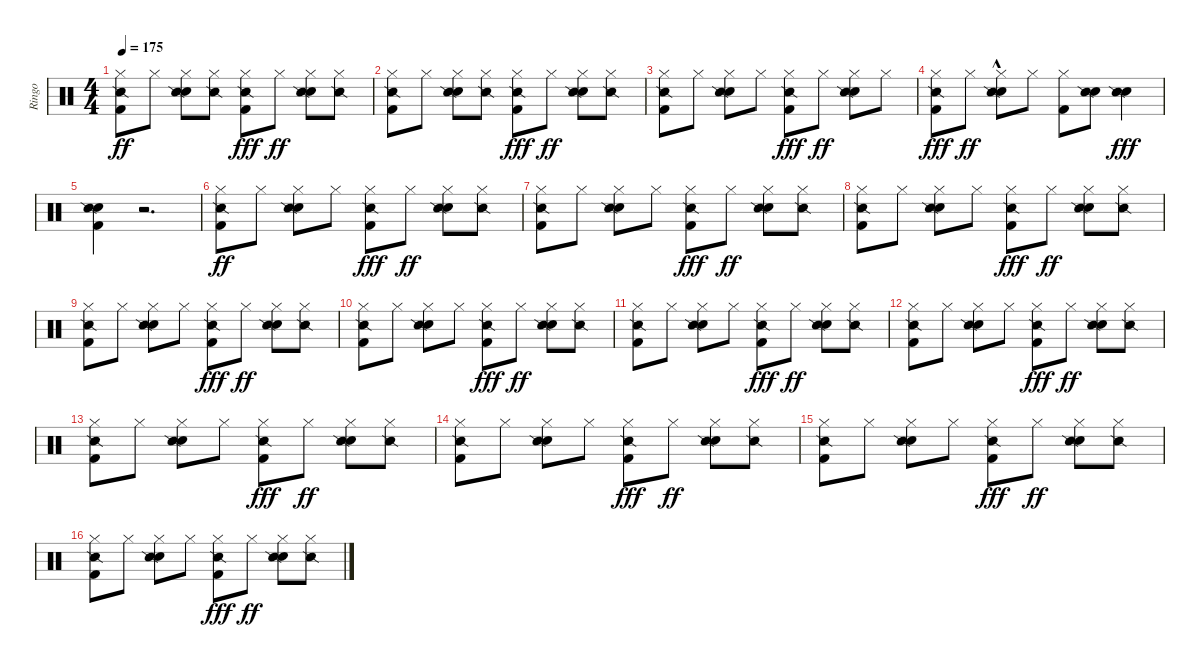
\track ("Ringo" "Ringo") {instrument percussion}
\staff {score}
\articulation defaults
\ts (4 4)
\tempo 175
\clef neutral
\ks c
("Hi-Hat (closed)" "Snare (side stick) 2" "Kick (hit) 2").8{dy ff} "Hi-Hat (closed)".8 ("Hi-Hat (closed)" "Electric Snare (hit)" "Snare (side stick) 2").8 ("Hi-Hat (closed)" "Snare (side stick) 2").8 ("Hi-Hat (closed)" "Snare (side stick) 2" "Kick (hit) 2").8{dy fff} "Hi-Hat (closed)".8{dy ff} ("Hi-Hat (closed)" "Electric Snare (hit)" "Snare (side stick) 2").8 ("Hi-Hat (closed)" "Snare (side stick) 2").8 |
("Hi-Hat (closed)" "Snare (side stick) 2" "Kick (hit) 2").8 "Hi-Hat (closed)".8 ("Hi-Hat (closed)" "Electric Snare (hit)" "Snare (side stick) 2").8 ("Hi-Hat (closed)" "Snare (side stick) 2").8 ("Hi-Hat (closed)" "Snare (side stick) 2" "Kick (hit) 2").8{dy fff} "Hi-Hat (closed)".8{dy ff} ("Hi-Hat (closed)" "Electric Snare (hit)" "Snare (side stick) 2").8 ("Hi-Hat (closed)" "Snare (side stick) 2").8 |
("Hi-Hat (closed)" "Snare (side stick) 2" "Kick (hit) 2").8 "Hi-Hat (closed)".8 ("Hi-Hat (closed)" "Electric Snare (hit)" "Snare (side stick) 2").8 "Hi-Hat (closed)".8 ("Hi-Hat (closed)" "Snare (side stick) 2" "Kick (hit) 2").8{dy fff} "Hi-Hat (closed)".8{dy ff} ("Hi-Hat (closed)" "Electric Snare (hit)" "Snare (side stick) 2").8 "Hi-Hat (closed)".8 |
("Hi-Hat (closed)" "Snare (side stick) 2" "Kick (hit) 2").8{dy fff} "Hi-Hat (closed)".8{dy ff} ("Hi-Hat (closed)" "Electric Snare (hit)"{hac} "Snare (side stick) 2").8 "Hi-Hat (closed)".8 ("Hi-Hat (closed)" "Kick (hit) 2").8 ("Electric Snare (hit)" "Snare (side stick) 2").8 ("Electric Snare (hit)" "Snare (side stick) 2").4{dy fff} |
("Electric Snare (hit)" "Snare (side stick) 2" "Kick (hit) 2").4 r.2{d} |
("Hi-Hat (closed)" "Snare (side stick) 2" "Kick (hit) 2").8{dy ff} "Hi-Hat (closed)".8 ("Hi-Hat (closed)" "Electric Snare (hit)" "Snare (side stick) 2").8 "Hi-Hat (closed)".8 ("Hi-Hat (closed)" "Snare (side stick) 2" "Kick (hit) 2").8{dy fff} "Hi-Hat (closed)".8{dy ff} ("Hi-Hat (closed)" "Electric Snare (hit)" "Snare (side stick) 2").8 ("Hi-Hat (closed)" "Snare (side stick) 2").8 |
("Hi-Hat (closed)" "Snare (side stick) 2" "Kick (hit) 2").8 "Hi-Hat (closed)".8 ("Hi-Hat (closed)" "Electric Snare (hit)" "Snare (side stick) 2").8 "Hi-Hat (closed)".8 ("Hi-Hat (closed)" "Snare (side stick) 2" "Kick (hit) 2").8{dy fff} "Hi-Hat (closed)".8{dy ff} ("Hi-Hat (closed)" "Electric Snare (hit)" "Snare (side stick) 2").8 ("Hi-Hat (closed)" "Snare (side stick) 2").8 |
("Hi-Hat (closed)" "Snare (side stick) 2" "Kick (hit) 2").8 "Hi-Hat (closed)".8 ("Hi-Hat (closed)" "Electric Snare (hit)" "Snare (side stick) 2").8 "Hi-Hat (closed)".8 ("Hi-Hat (closed)" "Snare (side stick) 2" "Kick (hit) 2").8{dy fff} "Hi-Hat (closed)".8{dy ff} ("Hi-Hat (closed)" "Electric Snare (hit)" "Snare (side stick) 2").8 ("Hi-Hat (closed)" "Snare (side stick) 2").8 |
("Hi-Hat (closed)" "Snare (side stick) 2" "Kick (hit) 2").8 "Hi-Hat (closed)".8 ("Hi-Hat (closed)" "Electric Snare (hit)" "Snare (side stick) 2").8 "Hi-Hat (closed)".8 ("Hi-Hat (closed)" "Snare (side stick) 2" "Kick (hit) 2").8{dy fff} "Hi-Hat (closed)".8{dy ff} ("Hi-Hat (closed)" "Electric Snare (hit)" "Snare (side stick) 2").8 ("Hi-Hat (closed)" "Snare (side stick) 2").8 |
("Hi-Hat (closed)" "Snare (side stick) 2" "Kick (hit) 2").8 "Hi-Hat (closed)".8 ("Hi-Hat (closed)" "Electric Snare (hit)" "Snare (side stick) 2").8 "Hi-Hat (closed)".8 ("Hi-Hat (closed)" "Snare (side stick) 2" "Kick (hit) 2").8{dy fff} "Hi-Hat (closed)".8{dy ff} ("Hi-Hat (closed)" "Electric Snare (hit)" "Snare (side stick) 2").8 ("Hi-Hat (closed)" "Snare (side stick) 2").8 |
("Hi-Hat (closed)" "Snare (side stick) 2" "Kick (hit) 2").8 "Hi-Hat (closed)".8 ("Hi-Hat (closed)" "Electric Snare (hit)" "Snare (side stick) 2").8 "Hi-Hat (closed)".8 ("Hi-Hat (closed)" "Snare (side stick) 2" "Kick (hit) 2").8{dy fff} "Hi-Hat (closed)".8{dy ff} ("Hi-Hat (closed)" "Electric Snare (hit)" "Snare (side stick) 2").8 ("Hi-Hat (closed)" "Snare (side stick) 2").8 |
("Hi-Hat (closed)" "Snare (side stick) 2" "Kick (hit) 2").8 "Hi-Hat (closed)".8 ("Hi-Hat (closed)" "Electric Snare (hit)" "Snare (side stick) 2").8 "Hi-Hat (closed)".8 ("Hi-Hat (closed)" "Snare (side stick) 2" "Kick (hit) 2").8{dy fff} "Hi-Hat (closed)".8{dy ff} ("Hi-Hat (closed)" "Electric Snare (hit)" "Snare (side stick) 2").8 ("Hi-Hat (closed)" "Snare (side stick) 2").8 |
("Hi-Hat (closed)" "Snare (side stick) 2" "Kick (hit) 2").8 "Hi-Hat (closed)".8 ("Hi-Hat (closed)" "Electric Snare (hit)" "Snare (side stick) 2").8 "Hi-Hat (closed)".8 ("Hi-Hat (closed)" "Snare (side stick) 2" "Kick (hit) 2").8{dy fff} "Hi-Hat (closed)".8{dy ff} ("Hi-Hat (closed)" "Electric Snare (hit)" "Snare (side stick) 2").8 ("Hi-Hat (closed)" "Snare (side stick) 2").8 |
("Hi-Hat (closed)" "Snare (side stick) 2" "Kick (hit) 2").8 "Hi-Hat (closed)".8 ("Hi-Hat (closed)" "Electric Snare (hit)" "Snare (side stick) 2").8 "Hi-Hat (closed)".8 ("Hi-Hat (closed)" "Snare (side stick) 2" "Kick (hit) 2").8{dy fff} "Hi-Hat (closed)".8{dy ff} ("Hi-Hat (closed)" "Electric Snare (hit)" "Snare (side stick) 2").8 ("Hi-Hat (closed)" "Snare (side stick) 2").8 |
("Hi-Hat (closed)" "Snare (side stick) 2" "Kick (hit) 2").8 "Hi-Hat (closed)".8 ("Hi-Hat (closed)" "Electric Snare (hit)" "Snare (side stick) 2").8 "Hi-Hat (closed)".8 ("Hi-Hat (closed)" "Snare (side stick) 2" "Kick (hit) 2").8{dy fff} "Hi-Hat (closed)".8{dy ff} ("Hi-Hat (closed)" "Electric Snare (hit)" "Snare (side stick) 2").8 ("Hi-Hat (closed)" "Snare (side stick) 2").8 |
("Hi-Hat (closed)" "Snare (side stick) 2" "Kick (hit) 2").8 "Hi-Hat (closed)".8 ("Hi-Hat (closed)" "Electric Snare (hit)" "Snare (side stick) 2").8 "Hi-Hat (closed)".8 ("Hi-Hat (closed)" "Snare (side stick) 2" "Kick (hit) 2").8{dy fff} "Hi-Hat (closed)".8{dy ff} ("Hi-Hat (closed)" "Electric Snare (hit)" "Snare (side stick) 2").8 ("Hi-Hat (closed)" "Snare (side stick) 2").8
